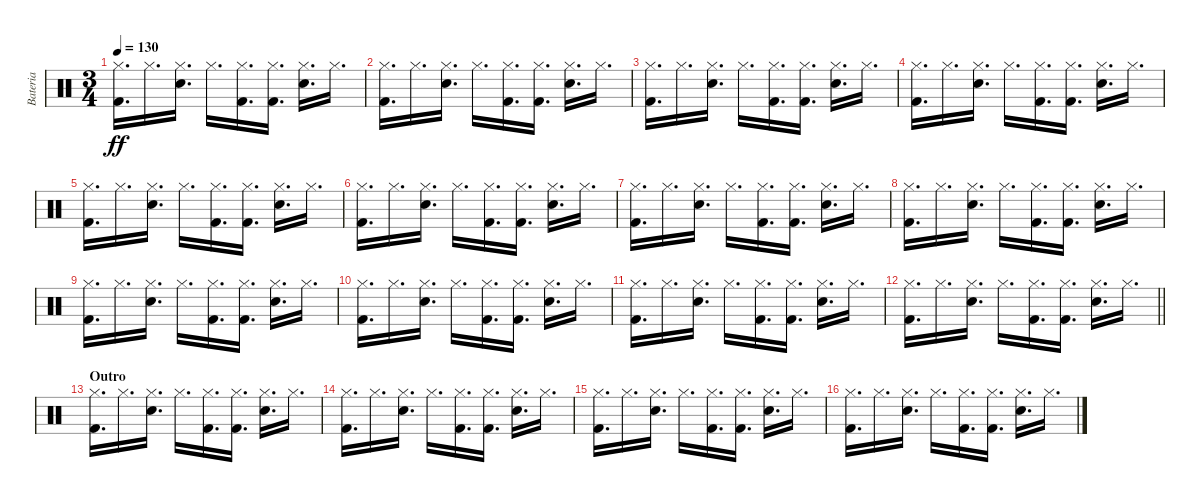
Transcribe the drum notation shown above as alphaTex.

\track ("Bateria" "Bateria") {instrument percussion}
\staff {score}
\articulation defaults
\ts (3 4)
\tempo 130
\clef neutral
\ks c
("Hi-Hat (closed)" "Kick (hit) 2").16{d dy ff} "Hi-Hat (closed)".16{d} ("Hi-Hat (closed)" "Snare (hit) 2").16{d} "Hi-Hat (closed)".16{d} ("Hi-Hat (closed)" "Kick (hit) 2").16{d} ("Hi-Hat (closed)" "Kick (hit) 2").16{d} ("Hi-Hat (closed)" "Snare (hit) 2").16{d} "Hi-Hat (closed)".16{d} |
("Hi-Hat (closed)" "Kick (hit) 2").16{d} "Hi-Hat (closed)".16{d} ("Hi-Hat (closed)" "Snare (hit) 2").16{d} "Hi-Hat (closed)".16{d} ("Hi-Hat (closed)" "Kick (hit) 2").16{d} ("Hi-Hat (closed)" "Kick (hit) 2").16{d} ("Hi-Hat (closed)" "Snare (hit) 2").16{d} "Hi-Hat (closed)".16{d} |
("Hi-Hat (closed)" "Kick (hit) 2").16{d} "Hi-Hat (closed)".16{d} ("Hi-Hat (closed)" "Snare (hit) 2").16{d} "Hi-Hat (closed)".16{d} ("Hi-Hat (closed)" "Kick (hit) 2").16{d} ("Hi-Hat (closed)" "Kick (hit) 2").16{d} ("Hi-Hat (closed)" "Snare (hit) 2").16{d} "Hi-Hat (closed)".16{d} |
("Hi-Hat (closed)" "Kick (hit) 2").16{d} "Hi-Hat (closed)".16{d} ("Hi-Hat (closed)" "Snare (hit) 2").16{d} "Hi-Hat (closed)".16{d} ("Hi-Hat (closed)" "Kick (hit) 2").16{d} ("Hi-Hat (closed)" "Kick (hit) 2").16{d} ("Hi-Hat (closed)" "Snare (hit) 2").16{d} "Hi-Hat (closed)".16{d} |
("Hi-Hat (closed)" "Kick (hit) 2").16{d} "Hi-Hat (closed)".16{d} ("Hi-Hat (closed)" "Snare (hit) 2").16{d} "Hi-Hat (closed)".16{d} ("Hi-Hat (closed)" "Kick (hit) 2").16{d} ("Hi-Hat (closed)" "Kick (hit) 2").16{d} ("Hi-Hat (closed)" "Snare (hit) 2").16{d} "Hi-Hat (closed)".16{d} |
("Hi-Hat (closed)" "Kick (hit) 2").16{d} "Hi-Hat (closed)".16{d} ("Hi-Hat (closed)" "Snare (hit) 2").16{d} "Hi-Hat (closed)".16{d} ("Hi-Hat (closed)" "Kick (hit) 2").16{d} ("Hi-Hat (closed)" "Kick (hit) 2").16{d} ("Hi-Hat (closed)" "Snare (hit) 2").16{d} "Hi-Hat (closed)".16{d} |
("Hi-Hat (closed)" "Kick (hit) 2").16{d} "Hi-Hat (closed)".16{d} ("Hi-Hat (closed)" "Snare (hit) 2").16{d} "Hi-Hat (closed)".16{d} ("Hi-Hat (closed)" "Kick (hit) 2").16{d} ("Hi-Hat (closed)" "Kick (hit) 2").16{d} ("Hi-Hat (closed)" "Snare (hit) 2").16{d} "Hi-Hat (closed)".16{d} |
("Hi-Hat (closed)" "Kick (hit) 2").16{d} "Hi-Hat (closed)".16{d} ("Hi-Hat (closed)" "Snare (hit) 2").16{d} "Hi-Hat (closed)".16{d} ("Hi-Hat (closed)" "Kick (hit) 2").16{d} ("Hi-Hat (closed)" "Kick (hit) 2").16{d} ("Hi-Hat (closed)" "Snare (hit) 2").16{d} "Hi-Hat (closed)".16{d} |
("Hi-Hat (closed)" "Kick (hit) 2").16{d} "Hi-Hat (closed)".16{d} ("Hi-Hat (closed)" "Snare (hit) 2").16{d} "Hi-Hat (closed)".16{d} ("Hi-Hat (closed)" "Kick (hit) 2").16{d} ("Hi-Hat (closed)" "Kick (hit) 2").16{d} ("Hi-Hat (closed)" "Snare (hit) 2").16{d} "Hi-Hat (closed)".16{d} |
("Hi-Hat (closed)" "Kick (hit) 2").16{d} "Hi-Hat (closed)".16{d} ("Hi-Hat (closed)" "Snare (hit) 2").16{d} "Hi-Hat (closed)".16{d} ("Hi-Hat (closed)" "Kick (hit) 2").16{d} ("Hi-Hat (closed)" "Kick (hit) 2").16{d} ("Hi-Hat (closed)" "Snare (hit) 2").16{d} "Hi-Hat (closed)".16{d} |
("Hi-Hat (closed)" "Kick (hit) 2").16{d} "Hi-Hat (closed)".16{d} ("Hi-Hat (closed)" "Snare (hit) 2").16{d} "Hi-Hat (closed)".16{d} ("Hi-Hat (closed)" "Kick (hit) 2").16{d} ("Hi-Hat (closed)" "Kick (hit) 2").16{d} ("Hi-Hat (closed)" "Snare (hit) 2").16{d} "Hi-Hat (closed)".16{d} |
\barLineRight lightlight
("Hi-Hat (closed)" "Kick (hit) 2").16{d} "Hi-Hat (closed)".16{d} ("Hi-Hat (closed)" "Snare (hit) 2").16{d} "Hi-Hat (closed)".16{d} ("Hi-Hat (closed)" "Kick (hit) 2").16{d} ("Hi-Hat (closed)" "Kick (hit) 2").16{d} ("Hi-Hat (closed)" "Snare (hit) 2").16{d} "Hi-Hat (closed)".16{d} |
\section ("" "Outro")
("Hi-Hat (closed)" "Kick (hit) 2").16{d} "Hi-Hat (closed)".16{d} ("Hi-Hat (closed)" "Snare (hit) 2").16{d} "Hi-Hat (closed)".16{d} ("Hi-Hat (closed)" "Kick (hit) 2").16{d} ("Hi-Hat (closed)" "Kick (hit) 2").16{d} ("Hi-Hat (closed)" "Snare (hit) 2").16{d} "Hi-Hat (closed)".16{d} |
("Hi-Hat (closed)" "Kick (hit) 2").16{d} "Hi-Hat (closed)".16{d} ("Hi-Hat (closed)" "Snare (hit) 2").16{d} "Hi-Hat (closed)".16{d} ("Hi-Hat (closed)" "Kick (hit) 2").16{d} ("Hi-Hat (closed)" "Kick (hit) 2").16{d} ("Hi-Hat (closed)" "Snare (hit) 2").16{d} "Hi-Hat (closed)".16{d} |
("Hi-Hat (closed)" "Kick (hit) 2").16{d} "Hi-Hat (closed)".16{d} ("Hi-Hat (closed)" "Snare (hit) 2").16{d} "Hi-Hat (closed)".16{d} ("Hi-Hat (closed)" "Kick (hit) 2").16{d} ("Hi-Hat (closed)" "Kick (hit) 2").16{d} ("Hi-Hat (closed)" "Snare (hit) 2").16{d} "Hi-Hat (closed)".16{d} |
("Hi-Hat (closed)" "Kick (hit) 2").16{d} "Hi-Hat (closed)".16{d} ("Hi-Hat (closed)" "Snare (hit) 2").16{d} "Hi-Hat (closed)".16{d} ("Hi-Hat (closed)" "Kick (hit) 2").16{d} ("Hi-Hat (closed)" "Kick (hit) 2").16{d} ("Hi-Hat (closed)" "Snare (hit) 2").16{d} "Hi-Hat (closed)".16{d}
